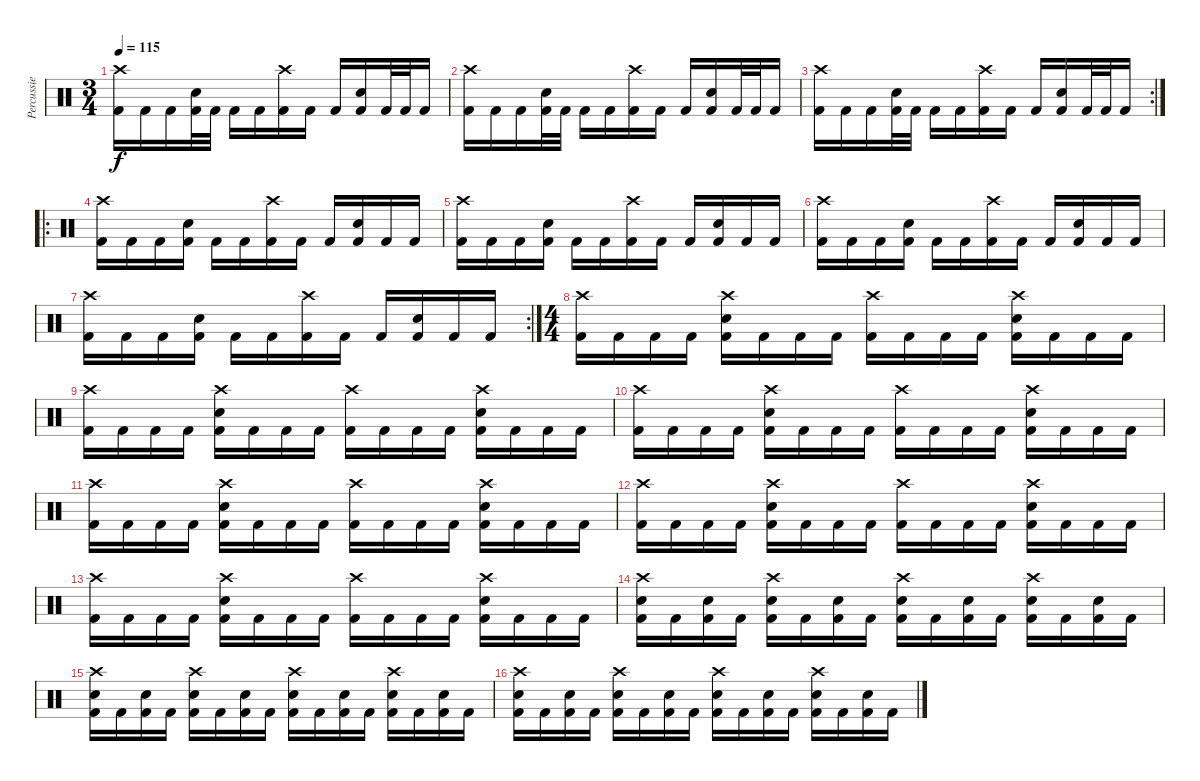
\track ("Percussie" "Percussie") {instrument percussion}
\staff {score}
\articulation defaults
\ts (3 4)
\tempo 115
\clef neutral
\ks c
("Crash high (hit)" "Kick (hit) 2").16{dy f} "Kick (hit) 2".16 "Kick (hit) 2".16 ("Snare (hit) 2" "Kick (hit) 2").32 "Kick (hit) 2".32 "Kick (hit) 2".16 "Kick (hit) 2".16 ("Crash high (hit)" "Kick (hit) 2").16 "Kick (hit) 2".16 "Kick (hit) 2".16 ("Snare (hit) 2" "Kick (hit) 2").16 "Kick (hit) 2".32 "Kick (hit) 2".32 "Kick (hit) 2".16 |
("Crash high (hit)" "Kick (hit) 2").16 "Kick (hit) 2".16 "Kick (hit) 2".16 ("Snare (hit) 2" "Kick (hit) 2").32 "Kick (hit) 2".32 "Kick (hit) 2".16 "Kick (hit) 2".16 ("Crash high (hit)" "Kick (hit) 2").16 "Kick (hit) 2".16 "Kick (hit) 2".16 ("Snare (hit) 2" "Kick (hit) 2").16 "Kick (hit) 2".32 "Kick (hit) 2".32 "Kick (hit) 2".16 |
\rc 2
("Crash high (hit)" "Kick (hit) 2").16 "Kick (hit) 2".16 "Kick (hit) 2".16 ("Snare (hit) 2" "Kick (hit) 2").32 "Kick (hit) 2".32 "Kick (hit) 2".16 "Kick (hit) 2".16 ("Crash high (hit)" "Kick (hit) 2").16 "Kick (hit) 2".16 "Kick (hit) 2".16 ("Snare (hit) 2" "Kick (hit) 2").16 "Kick (hit) 2".32 "Kick (hit) 2".32 "Kick (hit) 2".16 |
\ro
("Crash high (hit)" "Kick (hit) 2").16 "Kick (hit) 2".16 "Kick (hit) 2".16 ("Snare (hit) 2" "Kick (hit) 2").16 "Kick (hit) 2".16 "Kick (hit) 2".16 ("Crash high (hit)" "Kick (hit) 2").16 "Kick (hit) 2".16 "Kick (hit) 2".16 ("Snare (hit) 2" "Kick (hit) 2").16 "Kick (hit) 2".16 "Kick (hit) 2".16 |
("Crash high (hit)" "Kick (hit) 2").16 "Kick (hit) 2".16 "Kick (hit) 2".16 ("Snare (hit) 2" "Kick (hit) 2").16 "Kick (hit) 2".16 "Kick (hit) 2".16 ("Crash high (hit)" "Kick (hit) 2").16 "Kick (hit) 2".16 "Kick (hit) 2".16 ("Snare (hit) 2" "Kick (hit) 2").16 "Kick (hit) 2".16 "Kick (hit) 2".16 |
("Crash high (hit)" "Kick (hit) 2").16 "Kick (hit) 2".16 "Kick (hit) 2".16 ("Snare (hit) 2" "Kick (hit) 2").16 "Kick (hit) 2".16 "Kick (hit) 2".16 ("Crash high (hit)" "Kick (hit) 2").16 "Kick (hit) 2".16 "Kick (hit) 2".16 ("Snare (hit) 2" "Kick (hit) 2").16 "Kick (hit) 2".16 "Kick (hit) 2".16 |
\rc 2
("Crash high (hit)" "Kick (hit) 2").16 "Kick (hit) 2".16 "Kick (hit) 2".16 ("Snare (hit) 2" "Kick (hit) 2").16 "Kick (hit) 2".16 "Kick (hit) 2".16 ("Crash high (hit)" "Kick (hit) 2").16 "Kick (hit) 2".16 "Kick (hit) 2".16 ("Snare (hit) 2" "Kick (hit) 2").16 "Kick (hit) 2".16 "Kick (hit) 2".16 |
\ts (4 4)
("Crash high (hit)" "Kick (hit) 2").16 "Kick (hit) 2".16 "Kick (hit) 2".16 "Kick (hit) 2".16 ("Crash high (hit)" "Snare (hit) 2" "Kick (hit) 2").16 "Kick (hit) 2".16 "Kick (hit) 2".16 "Kick (hit) 2".16 ("Crash high (hit)" "Kick (hit) 2").16 "Kick (hit) 2".16 "Kick (hit) 2".16 "Kick (hit) 2".16 ("Crash high (hit)" "Snare (hit) 2" "Kick (hit) 2").16 "Kick (hit) 2".16 "Kick (hit) 2".16 "Kick (hit) 2".16 |
("Crash high (hit)" "Kick (hit) 2").16 "Kick (hit) 2".16 "Kick (hit) 2".16 "Kick (hit) 2".16 ("Crash high (hit)" "Snare (hit) 2" "Kick (hit) 2").16 "Kick (hit) 2".16 "Kick (hit) 2".16 "Kick (hit) 2".16 ("Crash high (hit)" "Kick (hit) 2").16 "Kick (hit) 2".16 "Kick (hit) 2".16 "Kick (hit) 2".16 ("Crash high (hit)" "Snare (hit) 2" "Kick (hit) 2").16 "Kick (hit) 2".16 "Kick (hit) 2".16 "Kick (hit) 2".16 |
("Crash high (hit)" "Kick (hit) 2").16 "Kick (hit) 2".16 "Kick (hit) 2".16 "Kick (hit) 2".16 ("Crash high (hit)" "Snare (hit) 2" "Kick (hit) 2").16 "Kick (hit) 2".16 "Kick (hit) 2".16 "Kick (hit) 2".16 ("Crash high (hit)" "Kick (hit) 2").16 "Kick (hit) 2".16 "Kick (hit) 2".16 "Kick (hit) 2".16 ("Crash high (hit)" "Snare (hit) 2" "Kick (hit) 2").16 "Kick (hit) 2".16 "Kick (hit) 2".16 "Kick (hit) 2".16 |
("Crash high (hit)" "Kick (hit) 2").16 "Kick (hit) 2".16 "Kick (hit) 2".16 "Kick (hit) 2".16 ("Crash high (hit)" "Snare (hit) 2" "Kick (hit) 2").16 "Kick (hit) 2".16 "Kick (hit) 2".16 "Kick (hit) 2".16 ("Crash high (hit)" "Kick (hit) 2").16 "Kick (hit) 2".16 "Kick (hit) 2".16 "Kick (hit) 2".16 ("Crash high (hit)" "Snare (hit) 2" "Kick (hit) 2").16 "Kick (hit) 2".16 "Kick (hit) 2".16 "Kick (hit) 2".16 |
("Crash high (hit)" "Kick (hit) 2").16 "Kick (hit) 2".16 "Kick (hit) 2".16 "Kick (hit) 2".16 ("Crash high (hit)" "Snare (hit) 2" "Kick (hit) 2").16 "Kick (hit) 2".16 "Kick (hit) 2".16 "Kick (hit) 2".16 ("Crash high (hit)" "Kick (hit) 2").16 "Kick (hit) 2".16 "Kick (hit) 2".16 "Kick (hit) 2".16 ("Crash high (hit)" "Snare (hit) 2" "Kick (hit) 2").16 "Kick (hit) 2".16 "Kick (hit) 2".16 "Kick (hit) 2".16 |
("Crash high (hit)" "Kick (hit) 2").16 "Kick (hit) 2".16 "Kick (hit) 2".16 "Kick (hit) 2".16 ("Crash high (hit)" "Snare (hit) 2" "Kick (hit) 2").16 "Kick (hit) 2".16 "Kick (hit) 2".16 "Kick (hit) 2".16 ("Crash high (hit)" "Kick (hit) 2").16 "Kick (hit) 2".16 "Kick (hit) 2".16 "Kick (hit) 2".16 ("Crash high (hit)" "Snare (hit) 2" "Kick (hit) 2").16 "Kick (hit) 2".16 "Kick (hit) 2".16 "Kick (hit) 2".16 |
("Crash high (hit)" "Snare (hit) 2" "Kick (hit) 2").16 "Kick (hit) 2".16 ("Snare (hit) 2" "Kick (hit) 2").16 "Kick (hit) 2".16 ("Crash high (hit)" "Snare (hit) 2" "Kick (hit) 2").16 "Kick (hit) 2".16 ("Snare (hit) 2" "Kick (hit) 2").16 "Kick (hit) 2".16 ("Crash high (hit)" "Snare (hit) 2" "Kick (hit) 2").16 "Kick (hit) 2".16 ("Snare (hit) 2" "Kick (hit) 2").16 "Kick (hit) 2".16 ("Crash high (hit)" "Snare (hit) 2" "Kick (hit) 2").16 "Kick (hit) 2".16 ("Snare (hit) 2" "Kick (hit) 2").16 "Kick (hit) 2".16 |
("Crash high (hit)" "Snare (hit) 2" "Kick (hit) 2").16 "Kick (hit) 2".16 ("Snare (hit) 2" "Kick (hit) 2").16 "Kick (hit) 2".16 ("Crash high (hit)" "Snare (hit) 2" "Kick (hit) 2").16 "Kick (hit) 2".16 ("Snare (hit) 2" "Kick (hit) 2").16 "Kick (hit) 2".16 ("Crash high (hit)" "Snare (hit) 2" "Kick (hit) 2").16 "Kick (hit) 2".16 ("Snare (hit) 2" "Kick (hit) 2").16 "Kick (hit) 2".16 ("Crash high (hit)" "Snare (hit) 2" "Kick (hit) 2").16 "Kick (hit) 2".16 ("Snare (hit) 2" "Kick (hit) 2").16 "Kick (hit) 2".16 |
("Crash high (hit)" "Snare (hit) 2" "Kick (hit) 2").16 "Kick (hit) 2".16 ("Snare (hit) 2" "Kick (hit) 2").16 "Kick (hit) 2".16 ("Crash high (hit)" "Snare (hit) 2" "Kick (hit) 2").16 "Kick (hit) 2".16 ("Snare (hit) 2" "Kick (hit) 2").16 "Kick (hit) 2".16 ("Crash high (hit)" "Snare (hit) 2" "Kick (hit) 2").16 "Kick (hit) 2".16 ("Snare (hit) 2" "Kick (hit) 2").16 "Kick (hit) 2".16 ("Crash high (hit)" "Snare (hit) 2" "Kick (hit) 2").16 "Kick (hit) 2".16 ("Snare (hit) 2" "Kick (hit) 2").16 "Kick (hit) 2".16
